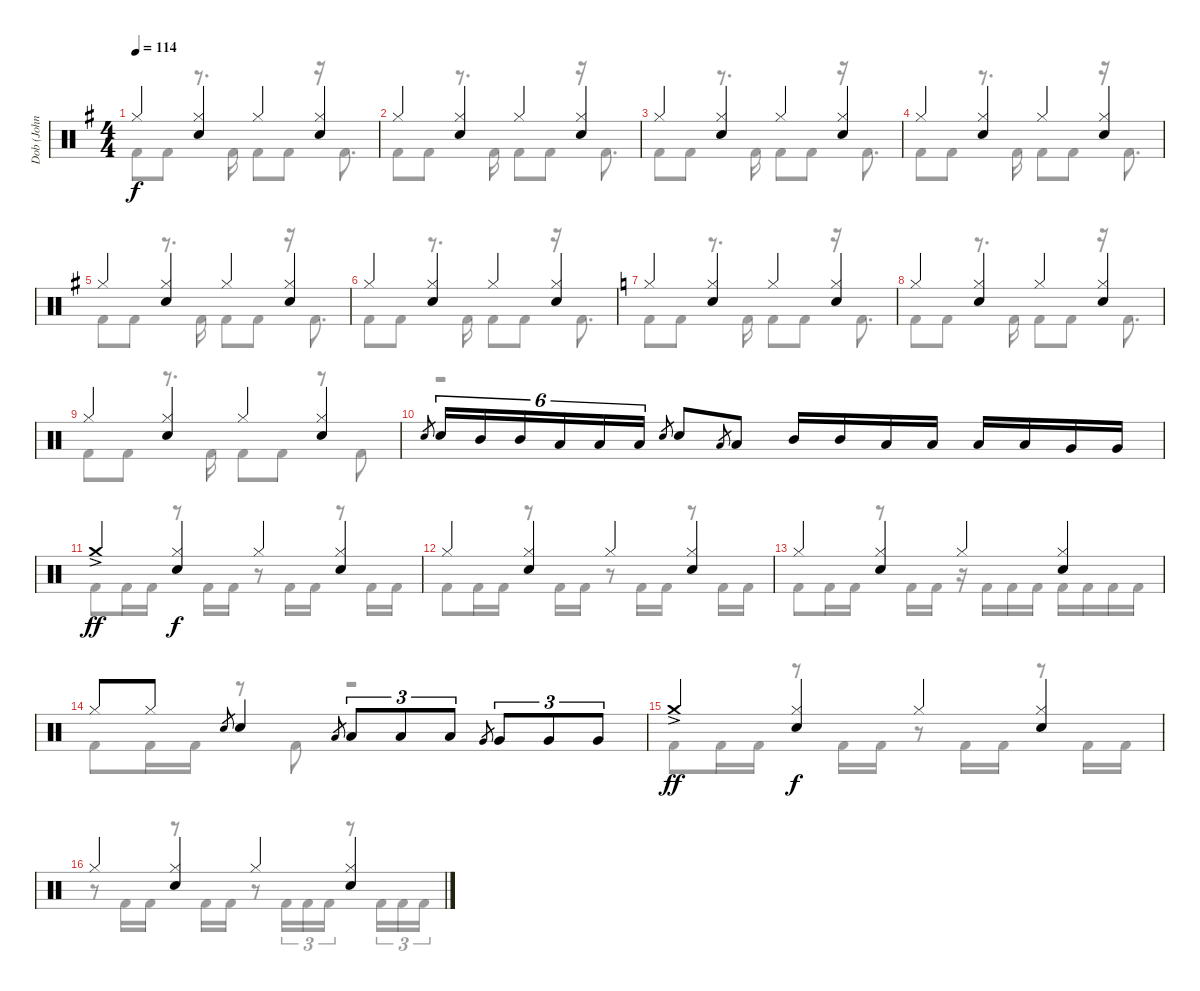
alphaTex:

\track ("Dob (John Macaluso)" "Dob (John ") {instrument percussion}
\staff {score}
\articulation defaults
\voice
\ts (4 4)
\tempo 114
\clef neutral
\ks g "Hi-Hat (closed)".4{dy f}
("Hi-Hat (closed)" "Electric Snare (hit)").4 "Hi-Hat (closed)".4 ("Hi-Hat (closed)" "Electric Snare (hit)").4 |
"Hi-Hat (closed)".4 ("Hi-Hat (closed)" "Electric Snare (hit)").4 "Hi-Hat (closed)".4 ("Hi-Hat (closed)" "Electric Snare (hit)").4 |
"Hi-Hat (closed)".4 ("Hi-Hat (closed)" "Electric Snare (hit)").4 "Hi-Hat (closed)".4 ("Hi-Hat (closed)" "Electric Snare (hit)").4 |
"Hi-Hat (closed)".4 ("Hi-Hat (closed)" "Electric Snare (hit)").4 "Hi-Hat (closed)".4 ("Hi-Hat (closed)" "Electric Snare (hit)").4 |
"Hi-Hat (closed)".4 ("Hi-Hat (closed)" "Electric Snare (hit)").4 "Hi-Hat (closed)".4 ("Hi-Hat (closed)" "Electric Snare (hit)").4 |
"Hi-Hat (closed)".4 ("Hi-Hat (closed)" "Electric Snare (hit)").4 "Hi-Hat (closed)".4 ("Hi-Hat (closed)" "Electric Snare (hit)").4 |
\ks c "Hi-Hat (closed)".4
("Hi-Hat (closed)" "Electric Snare (hit)").4 "Hi-Hat (closed)".4 ("Hi-Hat (closed)" "Electric Snare (hit)").4 |
"Hi-Hat (closed)".4 ("Hi-Hat (closed)" "Electric Snare (hit)").4 "Hi-Hat (closed)".4 ("Hi-Hat (closed)" "Electric Snare (hit)").4 |
"Hi-Hat (closed)".4 ("Hi-Hat (closed)" "Electric Snare (hit)").4 "Hi-Hat (closed)".4 ("Hi-Hat (closed)" "Electric Snare (hit)").4 |
"Electric Snare (hit)".8{gr} "Electric Snare (hit)".16{tu (6 4)} "Mid Tom (hit)".16{tu (6 4)} "Mid Tom (hit)".16{tu (6 4)} "Low Tom (hit)".16{tu (6 4)} "Low Tom (hit)".16{tu (6 4)} "Low Tom (hit)".16{tu (6 4)} "Electric Snare (hit)".8{gr} "Electric Snare (hit)".8 "Low Tom (hit)".8{gr} "Low Tom (hit)".8 "Mid Tom (hit)".16 "Mid Tom (hit)".16 "Low Tom (hit)".16 "Low Tom (hit)".16 "Low Tom (hit)".16 "Low Tom (hit)".16 "Very Low Tom (hit)".16 "Very Low Tom (hit)".16 |
"Crash medium (hit)"{ac}.4{dy ff} ("Hi-Hat (closed)" "Electric Snare (hit)").4{dy f} "Hi-Hat (closed)".4 ("Hi-Hat (closed)" "Electric Snare (hit)").4 |
"Hi-Hat (closed)".4 ("Hi-Hat (closed)" "Electric Snare (hit)").4 "Hi-Hat (closed)".4 ("Hi-Hat (closed)" "Electric Snare (hit)").4 |
"Hi-Hat (closed)".4 ("Hi-Hat (closed)" "Electric Snare (hit)").4 "Hi-Hat (closed)".4 ("Hi-Hat (closed)" "Electric Snare (hit)").4 |
"Hi-Hat (closed)".8 "Hi-Hat (closed)".8 "Electric Snare (hit)".8{gr} "Electric Snare (hit)".4 "Low Tom (hit)".8{gr} "Low Tom (hit)".8{tu (3 2)} "Low Tom (hit)".8{tu (3 2)} "Low Tom (hit)".8{tu (3 2)} "Very Low Tom (hit)".8{gr} "Very Low Tom (hit)".8{tu (3 2)} "Very Low Tom (hit)".8{tu (3 2)} "Very Low Tom (hit)".8{tu (3 2)} |
"Crash medium (hit)"{ac}.4{dy ff} ("Hi-Hat (closed)" "Electric Snare (hit)").4{dy f} "Hi-Hat (closed)".4 ("Hi-Hat (closed)" "Electric Snare (hit)").4 |
"Hi-Hat (closed)".4 ("Hi-Hat (closed)" "Electric Snare (hit)").4 "Hi-Hat (closed)".4 ("Hi-Hat (closed)" "Electric Snare (hit)").4
\voice
\clef neutral
\ottava regular
\simile none
\ks g "Kick (hit) 2".8{dy f} "Kick (hit) 2".8
r.8{d} "Kick (hit) 2".16 "Kick (hit) 2".8 "Kick (hit) 2".8 r.16 "Kick (hit) 2".8{d} |
"Kick (hit) 2".8 "Kick (hit) 2".8 r.8{d} "Kick (hit) 2".16 "Kick (hit) 2".8 "Kick (hit) 2".8 r.16 "Kick (hit) 2".8{d} |
"Kick (hit) 2".8 "Kick (hit) 2".8 r.8{d} "Kick (hit) 2".16 "Kick (hit) 2".8 "Kick (hit) 2".8 r.16 "Kick (hit) 2".8{d} |
"Kick (hit) 2".8 "Kick (hit) 2".8 r.8{d} "Kick (hit) 2".16 "Kick (hit) 2".8 "Kick (hit) 2".8 r.16 "Kick (hit) 2".8{d} |
"Kick (hit) 2".8 "Kick (hit) 2".8 r.8{d} "Kick (hit) 2".16 "Kick (hit) 2".8 "Kick (hit) 2".8 r.16 "Kick (hit) 2".8{d} |
"Kick (hit) 2".8 "Kick (hit) 2".8 r.8{d} "Kick (hit) 2".16 "Kick (hit) 2".8 "Kick (hit) 2".8 r.16 "Kick (hit) 2".8{d} |
\ks c "Kick (hit) 2".8 "Kick (hit) 2".8
r.8{d} "Kick (hit) 2".16 "Kick (hit) 2".8 "Kick (hit) 2".8 r.16 "Kick (hit) 2".8{d} |
"Kick (hit) 2".8 "Kick (hit) 2".8 r.8{d} "Kick (hit) 2".16 "Kick (hit) 2".8 "Kick (hit) 2".8 r.16 "Kick (hit) 2".8{d} |
"Kick (hit) 2".8 "Kick (hit) 2".8 r.8{d} "Kick (hit) 2".16 "Kick (hit) 2".8 "Kick (hit) 2".8 r.8 "Kick (hit) 2".8 |
r.1 |
"Kick (hit) 2".8 "Kick (hit) 2".16 "Kick (hit) 2".16 r.8 "Kick (hit) 2".16 "Kick (hit) 2".16 r.8 "Kick (hit) 2".16 "Kick (hit) 2".16 r.8 "Kick (hit) 2".16 "Kick (hit) 2".16 |
"Kick (hit) 2".8 "Kick (hit) 2".16 "Kick (hit) 2".16 r.8 "Kick (hit) 2".16 "Kick (hit) 2".16 r.8 "Kick (hit) 2".16 "Kick (hit) 2".16 r.8 "Kick (hit) 2".16 "Kick (hit) 2".16 |
"Kick (hit) 2".8 "Kick (hit) 2".16 "Kick (hit) 2".16 r.8 "Kick (hit) 2".16 "Kick (hit) 2".16 r.16 "Kick (hit) 2".16 "Kick (hit) 2".16 "Kick (hit) 2".16 "Kick (hit) 2".16 "Kick (hit) 2".16 "Kick (hit) 2".16 "Kick (hit) 2".16 |
"Kick (hit) 2".8 "Kick (hit) 2".16 "Kick (hit) 2".16 r.8 "Kick (hit) 2".8 r.2 |
"Kick (hit) 2".8 "Kick (hit) 2".16 "Kick (hit) 2".16 r.8 "Kick (hit) 2".16 "Kick (hit) 2".16 r.8 "Kick (hit) 2".16 "Kick (hit) 2".16 r.8 "Kick (hit) 2".16 "Kick (hit) 2".16 |
r.8 "Kick (hit) 2".16 "Kick (hit) 2".16 r.8 "Kick (hit) 2".16 "Kick (hit) 2".16 r.8 "Kick (hit) 2".16{tu (3 2)} "Kick (hit) 2".16{tu (3 2)} "Kick (hit) 2".16{tu (3 2)} r.8 "Kick (hit) 2".16{tu (3 2)} "Kick (hit) 2".16{tu (3 2)} "Kick (hit) 2".16{tu (3 2)}
